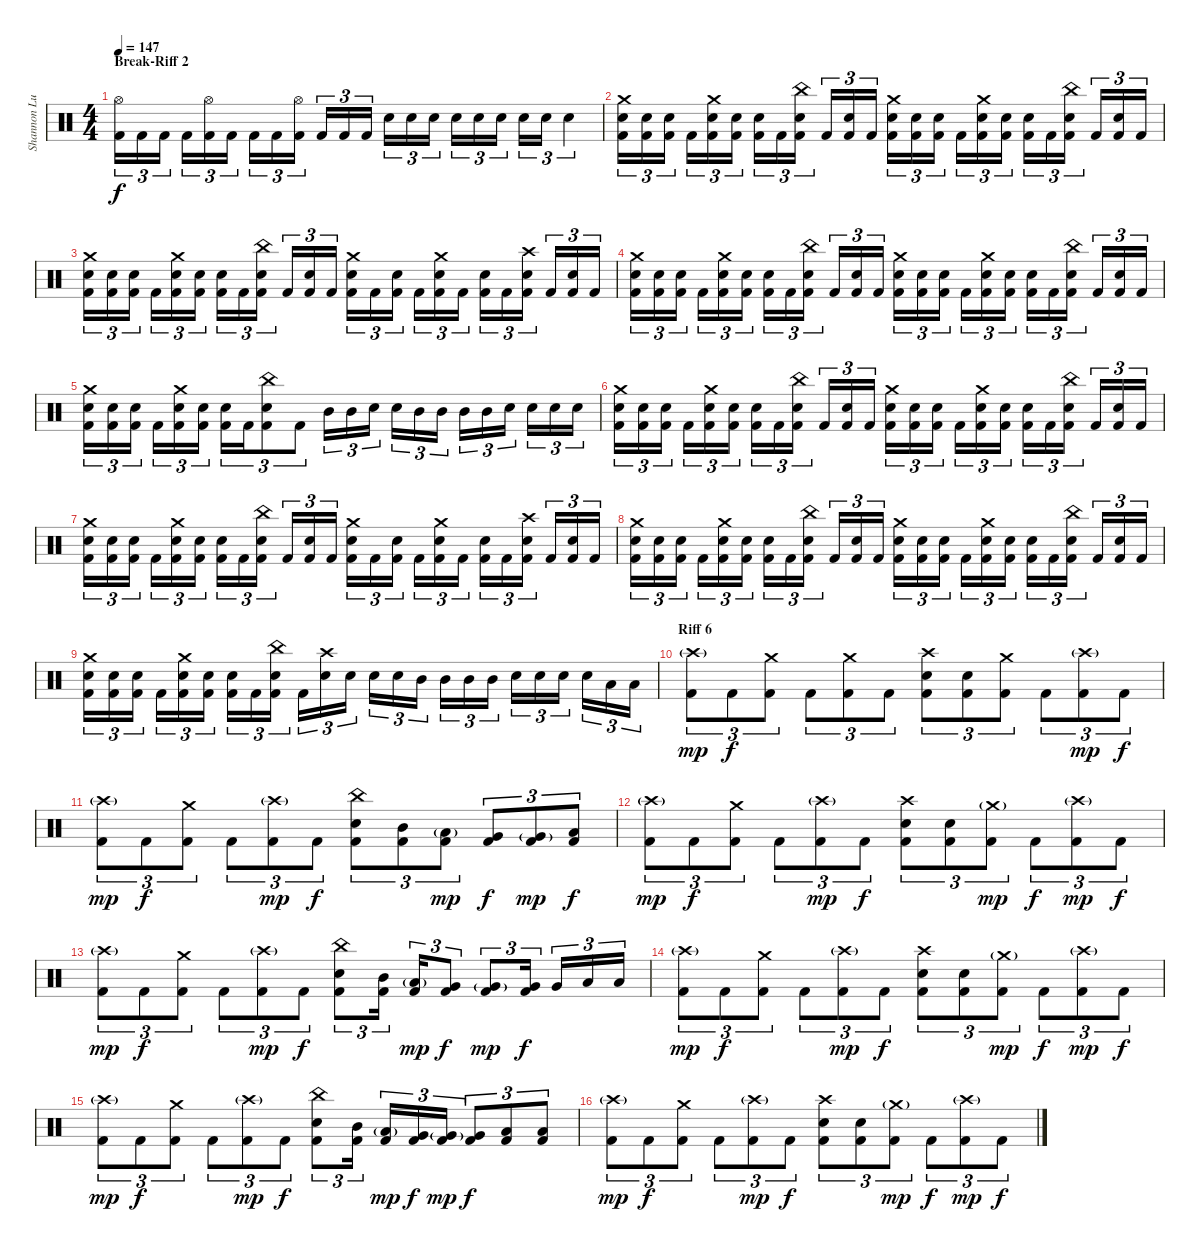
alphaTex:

\track ("Shannon Lucas (Drums)" "Shannon Lu") {instrument percussion}
\staff {score}
\articulation defaults
\ts (4 4)
\section ("" "Break-Riff 2")
\tempo 147
\clef neutral
\ks c
("Hi-Hat (open)" "Kick (hit) 2").16{tu (3 2) dy f} "Kick (hit) 2".16{tu (3 2)} "Kick (hit) 2".16{tu (3 2)} "Kick (hit) 2".16{tu (3 2)} ("Hi-Hat (open)" "Kick (hit) 2").16{tu (3 2)} "Kick (hit) 2".16{tu (3 2)} "Kick (hit) 2".16{tu (3 2)} "Kick (hit) 2".16{tu (3 2)} ("Hi-Hat (open)" "Kick (hit) 2").16{tu (3 2)} "Kick (hit) 2".16{tu (3 2)} "Kick (hit) 2".16{tu (3 2)} "Kick (hit) 2".16{tu (3 2)} "Snare (hit) 2".16{tu (3 2)} "Snare (hit) 2".16{tu (3 2)} "Snare (hit) 2".16{tu (3 2)} "Snare (hit) 2".16{tu (3 2)} "Snare (hit) 2".16{tu (3 2)} "Snare (hit) 2".16{tu (3 2)} "Snare (hit) 2".16{tu (3 2)} "Snare (hit) 2".16{tu (3 2)} "Snare (hit) 2".4{tu (3 2)} |
("Crash medium (hit)" "Snare (hit) 2" "Kick (hit) 2").16{tu (3 2)} ("Snare (hit) 2" "Kick (hit) 2").16{tu (3 2)} ("Snare (hit) 2" "Kick (hit) 2").16{tu (3 2)} "Kick (hit) 2".16{tu (3 2)} ("Crash medium (hit)" "Snare (hit) 2" "Kick (hit) 2").16{tu (3 2)} ("Snare (hit) 2" "Kick (hit) 2").16{tu (3 2)} ("Snare (hit) 2" "Kick (hit) 2").16{tu (3 2)} "Kick (hit) 2".16{tu (3 2)} ("China (hit)" "Snare (hit) 2" "Kick (hit) 2").16{tu (3 2)} "Kick (hit) 2".16{tu (3 2)} ("Snare (hit) 2" "Kick (hit) 2").16{tu (3 2)} "Kick (hit) 2".16{tu (3 2)} ("Crash medium (hit)" "Snare (hit) 2" "Kick (hit) 2").16{tu (3 2)} ("Snare (hit) 2" "Kick (hit) 2").16{tu (3 2)} ("Snare (hit) 2" "Kick (hit) 2").16{tu (3 2)} "Kick (hit) 2".16{tu (3 2)} ("Crash medium (hit)" "Snare (hit) 2" "Kick (hit) 2").16{tu (3 2)} ("Snare (hit) 2" "Kick (hit) 2").16{tu (3 2)} ("Snare (hit) 2" "Kick (hit) 2").16{tu (3 2)} "Kick (hit) 2".16{tu (3 2)} ("China (hit)" "Snare (hit) 2" "Kick (hit) 2").16{tu (3 2)} "Kick (hit) 2".16{tu (3 2)} ("Snare (hit) 2" "Kick (hit) 2").16{tu (3 2)} "Kick (hit) 2".16{tu (3 2)} |
("Crash medium (hit)" "Snare (hit) 2" "Kick (hit) 2").16{tu (3 2)} ("Snare (hit) 2" "Kick (hit) 2").16{tu (3 2)} ("Snare (hit) 2" "Kick (hit) 2").16{tu (3 2)} "Kick (hit) 2".16{tu (3 2)} ("Crash medium (hit)" "Snare (hit) 2" "Kick (hit) 2").16{tu (3 2)} ("Snare (hit) 2" "Kick (hit) 2").16{tu (3 2)} ("Snare (hit) 2" "Kick (hit) 2").16{tu (3 2)} "Kick (hit) 2".16{tu (3 2)} ("China (hit)" "Snare (hit) 2" "Kick (hit) 2").16{tu (3 2)} "Kick (hit) 2".16{tu (3 2)} ("Snare (hit) 2" "Kick (hit) 2").16{tu (3 2)} "Kick (hit) 2".16{tu (3 2)} ("Crash medium (hit)" "Snare (hit) 2" "Kick (hit) 2").16{tu (3 2)} "Kick (hit) 2".16{tu (3 2)} ("Snare (hit) 2" "Kick (hit) 2").16{tu (3 2)} "Kick (hit) 2".16{tu (3 2)} ("Crash medium (hit)" "Snare (hit) 2" "Kick (hit) 2").16{tu (3 2)} "Kick (hit) 2".16{tu (3 2)} ("Snare (hit) 2" "Kick (hit) 2").16{tu (3 2)} "Kick (hit) 2".16{tu (3 2)} ("Crash high (hit)" "Snare (hit) 2" "Kick (hit) 2").16{tu (3 2)} "Kick (hit) 2".16{tu (3 2)} ("Snare (hit) 2" "Kick (hit) 2").16{tu (3 2)} "Kick (hit) 2".16{tu (3 2)} |
("Crash medium (hit)" "Snare (hit) 2" "Kick (hit) 2").16{tu (3 2)} ("Snare (hit) 2" "Kick (hit) 2").16{tu (3 2)} ("Snare (hit) 2" "Kick (hit) 2").16{tu (3 2)} "Kick (hit) 2".16{tu (3 2)} ("Crash medium (hit)" "Snare (hit) 2" "Kick (hit) 2").16{tu (3 2)} ("Snare (hit) 2" "Kick (hit) 2").16{tu (3 2)} ("Snare (hit) 2" "Kick (hit) 2").16{tu (3 2)} "Kick (hit) 2".16{tu (3 2)} ("China (hit)" "Snare (hit) 2" "Kick (hit) 2").16{tu (3 2)} "Kick (hit) 2".16{tu (3 2)} ("Snare (hit) 2" "Kick (hit) 2").16{tu (3 2)} "Kick (hit) 2".16{tu (3 2)} ("Crash medium (hit)" "Snare (hit) 2" "Kick (hit) 2").16{tu (3 2)} ("Snare (hit) 2" "Kick (hit) 2").16{tu (3 2)} ("Snare (hit) 2" "Kick (hit) 2").16{tu (3 2)} "Kick (hit) 2".16{tu (3 2)} ("Crash medium (hit)" "Snare (hit) 2" "Kick (hit) 2").16{tu (3 2)} ("Snare (hit) 2" "Kick (hit) 2").16{tu (3 2)} ("Snare (hit) 2" "Kick (hit) 2").16{tu (3 2)} "Kick (hit) 2".16{tu (3 2)} ("China (hit)" "Snare (hit) 2" "Kick (hit) 2").16{tu (3 2)} "Kick (hit) 2".16{tu (3 2)} ("Snare (hit) 2" "Kick (hit) 2").16{tu (3 2)} "Kick (hit) 2".16{tu (3 2)} |
("Crash medium (hit)" "Snare (hit) 2" "Kick (hit) 2").16{tu (3 2)} ("Snare (hit) 2" "Kick (hit) 2").16{tu (3 2)} ("Snare (hit) 2" "Kick (hit) 2").16{tu (3 2)} "Kick (hit) 2".16{tu (3 2)} ("Crash medium (hit)" "Snare (hit) 2" "Kick (hit) 2").16{tu (3 2)} ("Snare (hit) 2" "Kick (hit) 2").16{tu (3 2)} ("Snare (hit) 2" "Kick (hit) 2").16{tu (3 2)} "Kick (hit) 2".16{tu (3 2)} ("China (hit)" "Snare (hit) 2" "Kick (hit) 2").8{tu (3 2)} "Kick (hit) 2".8{tu (3 2)} "Mid Tom (hit)".16{tu (3 2)} "Mid Tom (hit)".16{tu (3 2)} "Snare (hit) 2".16{tu (3 2)} "Snare (hit) 2".16{tu (3 2)} "Mid Tom (hit)".16{tu (3 2)} "Mid Tom (hit)".16{tu (3 2)} "Mid Tom (hit)".16{tu (3 2)} "Mid Tom (hit)".16{tu (3 2)} "Snare (hit) 2".16{tu (3 2)} "Snare (hit) 2".16{tu (3 2)} "Snare (hit) 2".16{tu (3 2)} "Snare (hit) 2".16{tu (3 2)} |
("Crash medium (hit)" "Snare (hit) 2" "Kick (hit) 2").16{tu (3 2)} ("Snare (hit) 2" "Kick (hit) 2").16{tu (3 2)} ("Snare (hit) 2" "Kick (hit) 2").16{tu (3 2)} "Kick (hit) 2".16{tu (3 2)} ("Crash medium (hit)" "Snare (hit) 2" "Kick (hit) 2").16{tu (3 2)} ("Snare (hit) 2" "Kick (hit) 2").16{tu (3 2)} ("Snare (hit) 2" "Kick (hit) 2").16{tu (3 2)} "Kick (hit) 2".16{tu (3 2)} ("China (hit)" "Snare (hit) 2" "Kick (hit) 2").16{tu (3 2)} "Kick (hit) 2".16{tu (3 2)} ("Snare (hit) 2" "Kick (hit) 2").16{tu (3 2)} "Kick (hit) 2".16{tu (3 2)} ("Crash medium (hit)" "Snare (hit) 2" "Kick (hit) 2").16{tu (3 2)} ("Snare (hit) 2" "Kick (hit) 2").16{tu (3 2)} ("Snare (hit) 2" "Kick (hit) 2").16{tu (3 2)} "Kick (hit) 2".16{tu (3 2)} ("Crash medium (hit)" "Snare (hit) 2" "Kick (hit) 2").16{tu (3 2)} ("Snare (hit) 2" "Kick (hit) 2").16{tu (3 2)} ("Snare (hit) 2" "Kick (hit) 2").16{tu (3 2)} "Kick (hit) 2".16{tu (3 2)} ("China (hit)" "Snare (hit) 2" "Kick (hit) 2").16{tu (3 2)} "Kick (hit) 2".16{tu (3 2)} ("Snare (hit) 2" "Kick (hit) 2").16{tu (3 2)} "Kick (hit) 2".16{tu (3 2)} |
("Crash medium (hit)" "Snare (hit) 2" "Kick (hit) 2").16{tu (3 2)} ("Snare (hit) 2" "Kick (hit) 2").16{tu (3 2)} ("Snare (hit) 2" "Kick (hit) 2").16{tu (3 2)} "Kick (hit) 2".16{tu (3 2)} ("Crash medium (hit)" "Snare (hit) 2" "Kick (hit) 2").16{tu (3 2)} ("Snare (hit) 2" "Kick (hit) 2").16{tu (3 2)} ("Snare (hit) 2" "Kick (hit) 2").16{tu (3 2)} "Kick (hit) 2".16{tu (3 2)} ("China (hit)" "Snare (hit) 2" "Kick (hit) 2").16{tu (3 2)} "Kick (hit) 2".16{tu (3 2)} ("Snare (hit) 2" "Kick (hit) 2").16{tu (3 2)} "Kick (hit) 2".16{tu (3 2)} ("Crash medium (hit)" "Snare (hit) 2" "Kick (hit) 2").16{tu (3 2)} "Kick (hit) 2".16{tu (3 2)} ("Snare (hit) 2" "Kick (hit) 2").16{tu (3 2)} "Kick (hit) 2".16{tu (3 2)} ("Crash medium (hit)" "Snare (hit) 2" "Kick (hit) 2").16{tu (3 2)} "Kick (hit) 2".16{tu (3 2)} ("Snare (hit) 2" "Kick (hit) 2").16{tu (3 2)} "Kick (hit) 2".16{tu (3 2)} ("Crash high (hit)" "Snare (hit) 2" "Kick (hit) 2").16{tu (3 2)} "Kick (hit) 2".16{tu (3 2)} ("Snare (hit) 2" "Kick (hit) 2").16{tu (3 2)} "Kick (hit) 2".16{tu (3 2)} |
("Crash medium (hit)" "Snare (hit) 2" "Kick (hit) 2").16{tu (3 2)} ("Snare (hit) 2" "Kick (hit) 2").16{tu (3 2)} ("Snare (hit) 2" "Kick (hit) 2").16{tu (3 2)} "Kick (hit) 2".16{tu (3 2)} ("Crash medium (hit)" "Snare (hit) 2" "Kick (hit) 2").16{tu (3 2)} ("Snare (hit) 2" "Kick (hit) 2").16{tu (3 2)} ("Snare (hit) 2" "Kick (hit) 2").16{tu (3 2)} "Kick (hit) 2".16{tu (3 2)} ("China (hit)" "Snare (hit) 2" "Kick (hit) 2").16{tu (3 2)} "Kick (hit) 2".16{tu (3 2)} ("Snare (hit) 2" "Kick (hit) 2").16{tu (3 2)} "Kick (hit) 2".16{tu (3 2)} ("Crash medium (hit)" "Snare (hit) 2" "Kick (hit) 2").16{tu (3 2)} ("Snare (hit) 2" "Kick (hit) 2").16{tu (3 2)} ("Snare (hit) 2" "Kick (hit) 2").16{tu (3 2)} "Kick (hit) 2".16{tu (3 2)} ("Crash medium (hit)" "Snare (hit) 2" "Kick (hit) 2").16{tu (3 2)} ("Snare (hit) 2" "Kick (hit) 2").16{tu (3 2)} ("Snare (hit) 2" "Kick (hit) 2").16{tu (3 2)} "Kick (hit) 2".16{tu (3 2)} ("China (hit)" "Snare (hit) 2" "Kick (hit) 2").16{tu (3 2)} "Kick (hit) 2".16{tu (3 2)} ("Snare (hit) 2" "Kick (hit) 2").16{tu (3 2)} "Kick (hit) 2".16{tu (3 2)} |
("Crash medium (hit)" "Snare (hit) 2" "Kick (hit) 2").16{tu (3 2)} ("Snare (hit) 2" "Kick (hit) 2").16{tu (3 2)} ("Snare (hit) 2" "Kick (hit) 2").16{tu (3 2)} "Kick (hit) 2".16{tu (3 2)} ("Crash medium (hit)" "Snare (hit) 2" "Kick (hit) 2").16{tu (3 2)} ("Snare (hit) 2" "Kick (hit) 2").16{tu (3 2)} ("Snare (hit) 2" "Kick (hit) 2").16{tu (3 2)} "Kick (hit) 2".16{tu (3 2)} ("China (hit)" "Snare (hit) 2" "Kick (hit) 2").16{tu (3 2)} "Kick (hit) 2".16{tu (3 2)} ("Crash high (hit)" "Snare (hit) 2").16{tu (3 2)} "Snare (hit) 2".16{tu (3 2)} "Snare (hit) 2".16{tu (3 2)} "Snare (hit) 2".16{tu (3 2)} "Mid Tom (hit)".16{tu (3 2)} "Mid Tom (hit)".16{tu (3 2)} "Mid Tom (hit)".16{tu (3 2)} "Mid Tom (hit)".16{tu (3 2)} "Snare (hit) 2".16{tu (3 2)} "Snare (hit) 2".16{tu (3 2)} "Snare (hit) 2".16{tu (3 2)} "Snare (hit) 2".16{tu (3 2)} "Low Tom (hit)".16{tu (3 2)} "Low Tom (hit)".16{tu (3 2)} |
\section ("" "Riff 6")
("Crash high (hit)"{g} "Kick (hit) 2").8{tu (3 2) dy mp} "Kick (hit) 2".8{tu (3 2) dy f} ("Crash medium (hit)" "Kick (hit) 2").8{tu (3 2)} "Kick (hit) 2".8{tu (3 2)} ("Crash medium (hit)" "Kick (hit) 2").8{tu (3 2)} "Kick (hit) 2".8{tu (3 2)} ("Crash high (hit)" "Snare (hit) 2" "Kick (hit) 2").8{tu (3 2)} ("Snare (hit) 2" "Kick (hit) 2").8{tu (3 2)} ("Crash medium (hit)" "Kick (hit) 2").8{tu (3 2)} "Kick (hit) 2".8{tu (3 2)} ("Crash high (hit)"{g} "Kick (hit) 2").8{tu (3 2) dy mp} "Kick (hit) 2".8{tu (3 2) dy f} |
("Crash high (hit)"{g} "Kick (hit) 2").8{tu (3 2) dy mp} "Kick (hit) 2".8{tu (3 2) dy f} ("Crash medium (hit)" "Kick (hit) 2").8{tu (3 2)} "Kick (hit) 2".8{tu (3 2)} ("Crash high (hit)"{g} "Kick (hit) 2").8{tu (3 2) dy mp} "Kick (hit) 2".8{tu (3 2) dy f} ("China (hit)" "Snare (hit) 2" "Kick (hit) 2").8{tu (3 2)} ("Mid Tom (hit)" "Kick (hit) 2").8{tu (3 2)} ("Low Tom (hit)"{g} "Kick (hit) 2").8{tu (3 2) dy mp} ("Very Low Tom (hit)" "Kick (hit) 2").8{tu (3 2) dy f} ("Very Low Tom (hit)"{g} "Kick (hit) 2").8{tu (3 2) dy mp} ("Low Floor Tom (hit)" "Kick (hit) 2").8{tu (3 2) dy f} |
("Crash high (hit)"{g} "Kick (hit) 2").8{tu (3 2) dy mp} "Kick (hit) 2".8{tu (3 2) dy f} ("Crash medium (hit)" "Kick (hit) 2").8{tu (3 2)} "Kick (hit) 2".8{tu (3 2)} ("Crash high (hit)"{g} "Kick (hit) 2").8{tu (3 2) dy mp} "Kick (hit) 2".8{tu (3 2) dy f} ("Crash high (hit)" "Snare (hit) 2" "Kick (hit) 2").8{tu (3 2)} ("Snare (hit) 2" "Kick (hit) 2").8{tu (3 2)} ("Crash medium (hit)"{g} "Kick (hit) 2").8{tu (3 2) dy mp} "Kick (hit) 2".8{tu (3 2) dy f} ("Crash high (hit)"{g} "Kick (hit) 2").8{tu (3 2) dy mp} "Kick (hit) 2".8{tu (3 2) dy f} |
("Crash high (hit)"{g} "Kick (hit) 2").8{tu (3 2) dy mp} "Kick (hit) 2".8{tu (3 2) dy f} ("Crash medium (hit)" "Kick (hit) 2").8{tu (3 2)} "Kick (hit) 2".8{tu (3 2)} ("Crash high (hit)"{g} "Kick (hit) 2").8{tu (3 2) dy mp} "Kick (hit) 2".8{tu (3 2) dy f} ("China (hit)" "Snare (hit) 2" "Kick (hit) 2").8{tu (3 2)} ("Mid Tom (hit)" "Kick (hit) 2").16{tu (3 2)} ("Low Tom (hit)"{g} "Kick (hit) 2").16{tu (3 2) dy mp} ("Very Low Tom (hit)" "Kick (hit) 2").8{tu (3 2) dy f} ("Very Low Tom (hit)"{g} "Kick (hit) 2").8{tu (3 2) dy mp} ("Very Low Tom (hit)" "Kick (hit) 2").16{tu (3 2) dy f} "Very Low Tom (hit)".16{tu (3 2)} "Low Floor Tom (hit)".16{tu (3 2)} "Low Floor Tom (hit)".16{tu (3 2)} |
("Crash high (hit)"{g} "Kick (hit) 2").8{tu (3 2) dy mp} "Kick (hit) 2".8{tu (3 2) dy f} ("Crash medium (hit)" "Kick (hit) 2").8{tu (3 2)} "Kick (hit) 2".8{tu (3 2)} ("Crash high (hit)"{g} "Kick (hit) 2").8{tu (3 2) dy mp} "Kick (hit) 2".8{tu (3 2) dy f} ("Crash high (hit)" "Snare (hit) 2" "Kick (hit) 2").8{tu (3 2)} ("Snare (hit) 2" "Kick (hit) 2").8{tu (3 2)} ("Crash medium (hit)"{g} "Kick (hit) 2").8{tu (3 2) dy mp} "Kick (hit) 2".8{tu (3 2) dy f} ("Crash high (hit)"{g} "Kick (hit) 2").8{tu (3 2) dy mp} "Kick (hit) 2".8{tu (3 2) dy f} |
("Crash high (hit)"{g} "Kick (hit) 2").8{tu (3 2) dy mp} "Kick (hit) 2".8{tu (3 2) dy f} ("Crash medium (hit)" "Kick (hit) 2").8{tu (3 2)} "Kick (hit) 2".8{tu (3 2)} ("Crash high (hit)"{g} "Kick (hit) 2").8{tu (3 2) dy mp} "Kick (hit) 2".8{tu (3 2) dy f} ("China (hit)" "Snare (hit) 2" "Kick (hit) 2").8{tu (3 2)} ("Mid Tom (hit)" "Kick (hit) 2").16{tu (3 2)} ("Low Tom (hit)"{g} "Kick (hit) 2").16{tu (3 2) dy mp} ("Very Low Tom (hit)" "Kick (hit) 2").16{tu (3 2) dy f} ("Very Low Tom (hit)"{g} "Kick (hit) 2").16{tu (3 2) dy mp} ("Very Low Tom (hit)" "Kick (hit) 2").8{tu (3 2) dy f} ("Low Floor Tom (hit)" "Kick (hit) 2").8{tu (3 2)} ("Low Floor Tom (hit)" "Kick (hit) 2").8{tu (3 2)} |
("Crash high (hit)"{g} "Kick (hit) 2").8{tu (3 2) dy mp} "Kick (hit) 2".8{tu (3 2) dy f} ("Crash medium (hit)" "Kick (hit) 2").8{tu (3 2)} "Kick (hit) 2".8{tu (3 2)} ("Crash high (hit)"{g} "Kick (hit) 2").8{tu (3 2) dy mp} "Kick (hit) 2".8{tu (3 2) dy f} ("Crash high (hit)" "Snare (hit) 2" "Kick (hit) 2").8{tu (3 2)} ("Snare (hit) 2" "Kick (hit) 2").8{tu (3 2)} ("Crash medium (hit)"{g} "Kick (hit) 2").8{tu (3 2) dy mp} "Kick (hit) 2".8{tu (3 2) dy f} ("Crash high (hit)"{g} "Kick (hit) 2").8{tu (3 2) dy mp} "Kick (hit) 2".8{tu (3 2) dy f}
